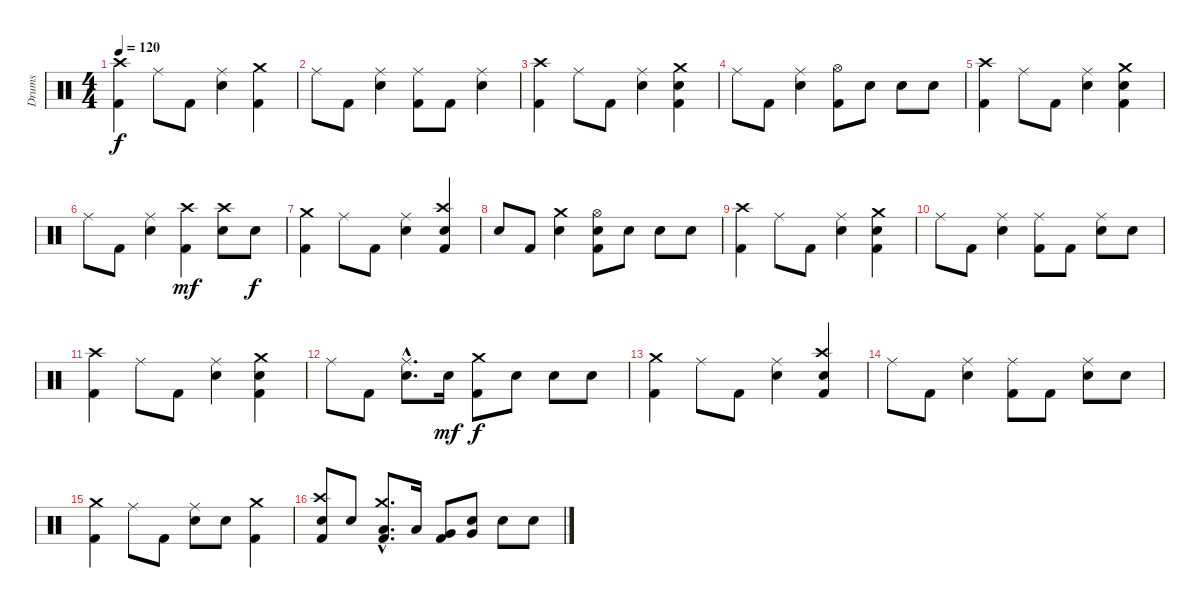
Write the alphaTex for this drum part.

\track ("Drums" "Drums") {instrument percussion}
\staff {score}
\articulation defaults
\ts (4 4)
\tempo 120
\clef neutral
\ks c
("Kick (hit) 2" "Crash high (hit)").4{dy f} "Ride (middle)".8 "Kick (hit) 2".8 ("Snare (hit) 2" "Ride (middle)").4 ("Kick (hit) 2" "Crash medium (hit)").4 |
"Ride (middle)".8 "Kick (hit) 2".8 ("Snare (hit) 2" "Ride (middle)").4 ("Kick (hit) 2" "Ride (middle)").8 "Kick (hit) 2".8 ("Snare (hit) 2" "Ride (middle)").4 |
("Kick (hit) 2" "Crash high (hit)").4 "Ride (middle)".8 "Kick (hit) 2".8 ("Snare (hit) 2" "Ride (middle)").4 ("Kick (hit) 2" "Snare (hit) 2" "Crash medium (hit)").4 |
"Ride (middle)".8 "Kick (hit) 2".8 ("Snare (hit) 2" "Ride (middle)").4 ("Kick (hit) 2" "Hi-Hat (open)").8 "Snare (hit) 2".8 "Snare (hit) 2".8 "Snare (hit) 2".8 |
("Kick (hit) 2" "Crash high (hit)").4 "Ride (middle)".8 "Kick (hit) 2".8 ("Snare (hit) 2" "Ride (middle)").4 ("Kick (hit) 2" "Snare (hit) 2" "Crash medium (hit)").4 |
"Ride (middle)".8 "Kick (hit) 2".8 ("Snare (hit) 2" "Ride (middle)").4 ("Kick (hit) 2" "Crash high (hit)").4{dy mf} ("Snare (hit) 2" "Crash high (hit)").8 "Snare (hit) 2".8{dy f} |
("Kick (hit) 2" "Crash medium (hit)").4 "Ride (middle)".8 "Kick (hit) 2".8 ("Snare (hit) 2" "Ride (middle)").4 ("Kick (hit) 2" "Snare (hit) 2" "Crash high (hit)").4 |
"Snare (hit) 2".8 "Kick (hit) 2".8 ("Snare (hit) 2" "Crash medium (hit)").4 ("Kick (hit) 2" "Snare (hit) 2" "Hi-Hat (open)").8 "Snare (hit) 2".8 "Snare (hit) 2".8 "Snare (hit) 2".8 |
("Kick (hit) 2" "Crash high (hit)").4 "Ride (middle)".8 "Kick (hit) 2".8 ("Snare (hit) 2" "Ride (middle)").4 ("Kick (hit) 2" "Snare (hit) 2" "Crash medium (hit)").4 |
"Ride (middle)".8 "Kick (hit) 2".8 ("Snare (hit) 2" "Ride (middle)").4 ("Kick (hit) 2" "Ride (middle)").8 "Kick (hit) 2".8 ("Snare (hit) 2" "Ride (middle)").8 "Snare (hit) 2".8 |
("Kick (hit) 2" "Crash high (hit)").4 "Ride (middle)".8 "Kick (hit) 2".8 ("Snare (hit) 2" "Ride (middle)").4 ("Kick (hit) 2" "Snare (hit) 2" "Crash medium (hit)").4 |
"Ride (middle)".8 "Kick (hit) 2".8 ("Snare (hit) 2"{hac} "Ride (middle)"{hac}).8{d} "Snare (hit) 2".16{dy mf} ("Kick (hit) 2" "Crash medium (hit)").8{dy f} "Snare (hit) 2".8 "Snare (hit) 2".8 "Snare (hit) 2".8 |
("Kick (hit) 2" "Crash medium (hit)").4 "Ride (middle)".8 "Kick (hit) 2".8 ("Snare (hit) 2" "Ride (middle)").4 ("Kick (hit) 2" "Snare (hit) 2" "Crash high (hit)").4 |
"Ride (middle)".8 "Kick (hit) 2".8 ("Snare (hit) 2" "Ride (middle)").4 ("Kick (hit) 2" "Ride (middle)").8 "Kick (hit) 2".8 ("Snare (hit) 2" "Ride (middle)").8 "Snare (hit) 2".8 |
("Kick (hit) 2" "Crash medium (hit)").4 "Ride (middle)".8 "Kick (hit) 2".8 ("Snare (hit) 2" "Ride (middle)").8 "Snare (hit) 2".8 ("Kick (hit) 2" "Crash medium (hit)").4 |
("Kick (hit) 2" "Snare (hit) 2" "Crash high (hit)").8 "Snare (hit) 2".8 ("Kick (hit) 2"{hac} "Low Tom (hit)"{hac} "Crash medium (hit)"{hac}).8{d} "Low Tom (hit)".16 ("Kick (hit) 2" "Very Low Tom (hit)").8 ("Snare (hit) 2" "Very Low Tom (hit)").8 "Snare (hit) 2".8 "Snare (hit) 2".8
